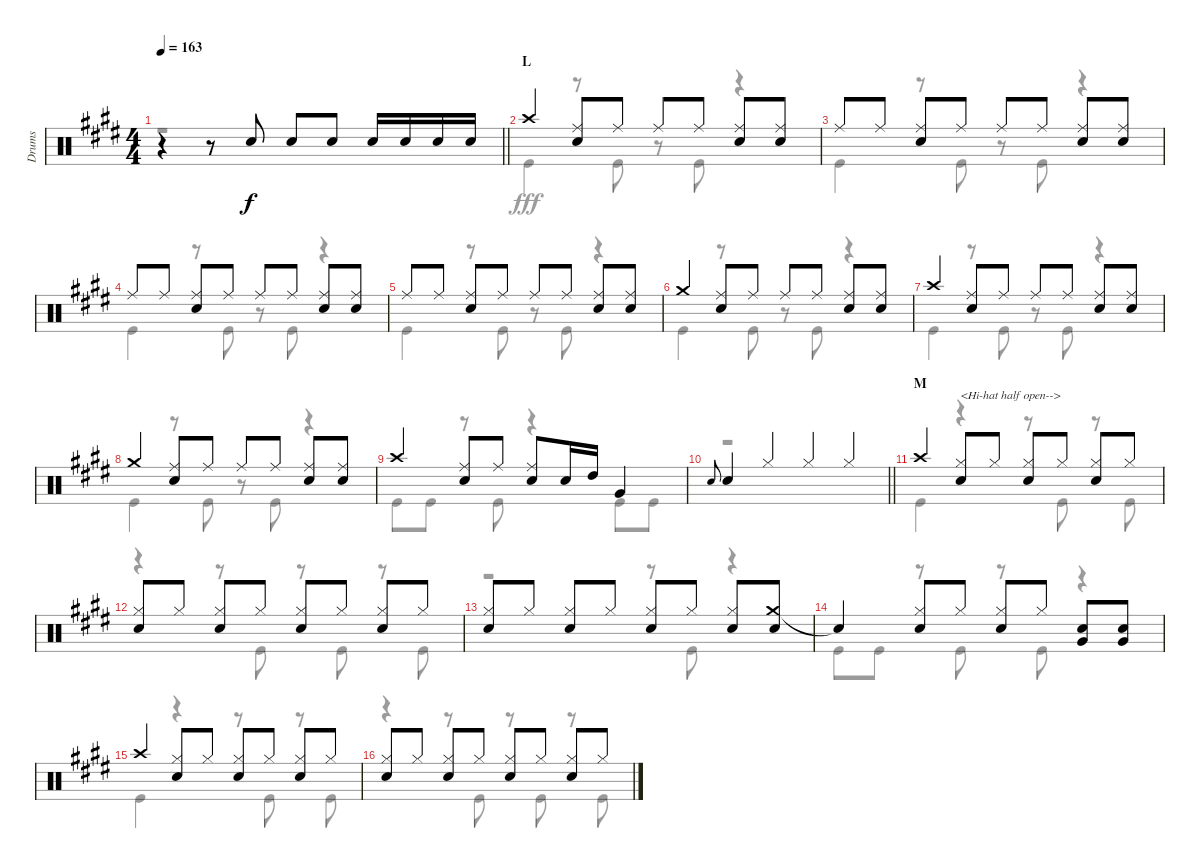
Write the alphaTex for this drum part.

\track ("Drums" "Drums") {instrument percussion}
\staff {score}
\articulation defaults
\voice
\ts (4 4)
\tempo 163
\clef neutral
\barLineRight lightlight
\ks e
r.4{dy f} r.8 "Snare (hit) 2".8 "Snare (hit) 2".8 "Snare (hit) 2".8 "Snare (hit) 2".16 "Snare (hit) 2".16 "Snare (hit) 2".16 "Snare (hit) 2".16 |
\section ("" "L")
"Crash high (hit)".4 ("Ride (middle)" "Snare (hit) 2").8 "Ride (middle)".8 "Ride (middle)".8 "Ride (middle)".8 ("Ride (middle)" "Snare (hit) 2").8 ("Ride (middle)" "Snare (hit) 2").8 |
"Ride (middle)".8 "Ride (middle)".8 ("Ride (middle)" "Snare (hit) 2").8 "Ride (middle)".8 "Ride (middle)".8 "Ride (middle)".8 ("Ride (middle)" "Snare (hit) 2").8 ("Ride (middle)" "Snare (hit) 2").8 |
"Ride (middle)".8 "Ride (middle)".8 ("Ride (middle)" "Snare (hit) 2").8 "Ride (middle)".8 "Ride (middle)".8 "Ride (middle)".8 ("Ride (middle)" "Snare (hit) 2").8 ("Ride (middle)" "Snare (hit) 2").8 |
"Ride (middle)".8 "Ride (middle)".8 ("Ride (middle)" "Snare (hit) 2").8 "Ride (middle)".8 "Ride (middle)".8 "Ride (middle)".8 ("Ride (middle)" "Snare (hit) 2").8 ("Ride (middle)" "Snare (hit) 2").8 |
"Crash medium (hit)".4 ("Ride (middle)" "Snare (hit) 2").8 "Ride (middle)".8 "Ride (middle)".8 "Ride (middle)".8 ("Ride (middle)" "Snare (hit) 2").8 ("Ride (middle)" "Snare (hit) 2").8 |
"Crash high (hit)".4 ("Ride (middle)" "Snare (hit) 2").8 "Ride (middle)".8 "Ride (middle)".8 "Ride (middle)".8 ("Ride (middle)" "Snare (hit) 2").8 ("Ride (middle)" "Snare (hit) 2").8 |
"Crash medium (hit)".4 ("Ride (middle)" "Snare (hit) 2").8 "Ride (middle)".8 "Ride (middle)".8 "Ride (middle)".8 ("Ride (middle)" "Snare (hit) 2").8 ("Ride (middle)" "Snare (hit) 2").8 |
"Crash high (hit)".4 ("Ride (middle)" "Snare (hit) 2").8 "Ride (middle)".8 ("Ride (middle)" "Snare (hit) 2").8 "Snare (hit) 2".16 "High Tom (hit)".16 "Very Low Tom (hit)".4 |
\barLineRight lightlight "Snare (hit) 2".8{gr onbeat} "Snare (hit) 2".4 "Hi-Hat (closed)".4 "Hi-Hat (closed)".4 "Hi-Hat (closed)".4
|
\section ("" "M")
"Crash high (hit)".4 ("Hi-Hat (closed)" "Snare (hit) 2").8{txt "<Hi-hat half open-->"} "Hi-Hat (closed)".8 ("Hi-Hat (closed)" "Snare (hit) 2").8 "Hi-Hat (closed)".8 ("Hi-Hat (closed)" "Snare (hit) 2").8 "Hi-Hat (closed)".8 |
("Hi-Hat (closed)" "Snare (hit) 2").8 "Hi-Hat (closed)".8 ("Hi-Hat (closed)" "Snare (hit) 2").8 "Hi-Hat (closed)".8 ("Hi-Hat (closed)" "Snare (hit) 2").8 "Hi-Hat (closed)".8 ("Hi-Hat (closed)" "Snare (hit) 2").8 "Hi-Hat (closed)".8 |
("Hi-Hat (closed)" "Snare (hit) 2").8 "Hi-Hat (closed)".8 ("Hi-Hat (closed)" "Snare (hit) 2").8 "Hi-Hat (closed)".8 ("Hi-Hat (closed)" "Snare (hit) 2").8 "Hi-Hat (closed)".8 ("Hi-Hat (closed)" "Snare (hit) 2").8 ("Crash medium (hit)" "Snare (hit) 2").8 |
"Snare (hit)"{t}.4 ("Hi-Hat (closed)" "Snare (hit) 2").8 "Hi-Hat (closed)".8 ("Hi-Hat (closed)" "Snare (hit) 2").8 "Hi-Hat (closed)".8 ("Snare (hit) 2" "Very Low Tom (hit)").8 ("Snare (hit) 2" "Very Low Tom (hit)").8 |
"Crash high (hit)".4 ("Hi-Hat (closed)" "Snare (hit) 2").8 "Hi-Hat (closed)".8 ("Hi-Hat (closed)" "Snare (hit) 2").8 "Hi-Hat (closed)".8 ("Hi-Hat (closed)" "Snare (hit) 2").8 "Hi-Hat (closed)".8 |
("Hi-Hat (closed)" "Snare (hit) 2").8 "Hi-Hat (closed)".8 ("Hi-Hat (closed)" "Snare (hit) 2").8 "Hi-Hat (closed)".8 ("Hi-Hat (closed)" "Snare (hit) 2").8 "Hi-Hat (closed)".8 ("Hi-Hat (closed)" "Snare (hit) 2").8 "Hi-Hat (closed)".8
\voice
\clef neutral
\ottava regular
\simile none
\barLineRight lightlight
\ks e
r.1{dy fff} |
"Kick (hit)".4 r.8 "Kick (hit)".8 r.8 "Kick (hit)".8 r.4 |
"Kick (hit)".4 r.8 "Kick (hit)".8 r.8 "Kick (hit)".8 r.4 |
"Kick (hit)".4 r.8 "Kick (hit)".8 r.8 "Kick (hit)".8 r.4 |
"Kick (hit)".4 r.8 "Kick (hit)".8 r.8 "Kick (hit)".8 r.4 |
"Kick (hit)".4 r.8 "Kick (hit)".8 r.8 "Kick (hit)".8 r.4 |
"Kick (hit)".4 r.8 "Kick (hit)".8 r.8 "Kick (hit)".8 r.4 |
"Kick (hit)".4 r.8 "Kick (hit)".8 r.8 "Kick (hit)".8 r.4 |
"Kick (hit)".8 "Kick (hit)".8 r.8 "Kick (hit)".8 r.4 "Kick (hit)".8 "Kick (hit)".8 |
\barLineRight lightlight
r.1 |
"Kick (hit)".4 r.4 r.8 "Kick (hit)".8 r.8 "Kick (hit)".8 |
r.4 r.8 "Kick (hit)".8 r.8 "Kick (hit)".8 r.8 "Kick (hit)".8 |
r.2 r.8 "Kick (hit)".8 r.4 |
"Kick (hit)".8 "Kick (hit)".8 r.8 "Kick (hit)".8 r.8 "Kick (hit)".8 r.4 |
"Kick (hit)".4 r.4 r.8 "Kick (hit)".8 r.8 "Kick (hit)".8 |
r.4 r.8 "Kick (hit)".8 r.8 "Kick (hit)".8 r.8 "Kick (hit)".8
